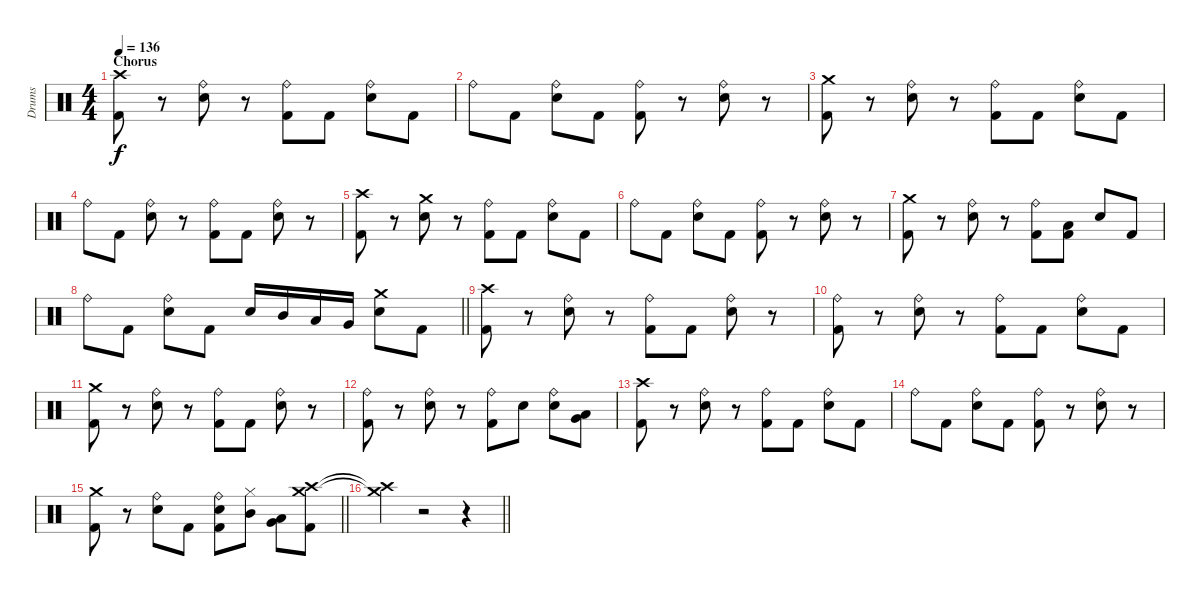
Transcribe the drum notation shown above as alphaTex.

\track ("Drums" "Drums") {instrument percussion}
\staff {score}
\articulation defaults
\ts (4 4)
\section ("" "Chorus")
\tempo 136
\clef neutral
\ks c
("Crash high (hit)" "Kick (hit) 2").8{dy f} r.8 ("Ride (bell)" "Electric Snare (hit)").8 r.8 ("Ride (bell)" "Kick (hit) 2").8 "Kick (hit) 2".8 ("Ride (bell)" "Electric Snare (hit)").8 "Kick (hit) 2".8 |
"Ride (bell)".8 "Kick (hit) 2".8 ("Ride (bell)" "Electric Snare (hit)").8 "Kick (hit) 2".8 ("Ride (bell)" "Kick (hit) 2").8 r.8 ("Ride (bell)" "Electric Snare (hit)").8 r.8 |
("Crash medium (hit)" "Kick (hit) 2").8 r.8 ("Ride (bell)" "Electric Snare (hit)").8 r.8 ("Ride (bell)" "Kick (hit) 2").8 "Kick (hit) 2".8 ("Ride (bell)" "Electric Snare (hit)").8 "Kick (hit) 2".8 |
"Ride (bell)".8 "Kick (hit) 2".8 ("Ride (bell)" "Electric Snare (hit)").8 r.8 ("Ride (bell)" "Kick (hit) 2").8 "Kick (hit) 2".8 ("Ride (bell)" "Electric Snare (hit)").8 r.8 |
("Crash high (hit)" "Kick (hit) 2").8 r.8 ("Crash medium (hit)" "Electric Snare (hit)").8 r.8 ("Ride (bell)" "Kick (hit) 2").8 "Kick (hit) 2".8 ("Ride (bell)" "Electric Snare (hit)").8 "Kick (hit) 2".8 |
"Ride (bell)".8 "Kick (hit) 2".8 ("Ride (bell)" "Electric Snare (hit)").8 "Kick (hit) 2".8 ("Ride (bell)" "Kick (hit) 2").8 r.8 ("Ride (bell)" "Electric Snare (hit)").8 r.8 |
("Crash medium (hit)" "Kick (hit) 2").8 r.8 ("Ride (bell)" "Electric Snare (hit)").8 r.8 ("Ride (bell)" "Kick (hit) 2").8 ("Low Tom (hit)" "Kick (hit) 2").8 "Electric Snare (hit)".8 "Kick (hit) 2".8 |
\barLineRight lightlight "Ride (bell)".8 "Kick (hit) 2".8
("Ride (bell)" "Electric Snare (hit)").8 "Kick (hit) 2".8 "Electric Snare (hit)".16 "Mid Tom (hit)".16 "Low Tom (hit)".16 "Very Low Tom (hit)".16 ("Crash medium (hit)" "Electric Snare (hit)").8 "Kick (hit) 2".8 |
("Crash high (hit)" "Kick (hit) 2").8 r.8 ("Ride (bell)" "Electric Snare (hit)").8 r.8 ("Ride (bell)" "Kick (hit) 2").8 "Kick (hit) 2".8 ("Ride (bell)" "Electric Snare (hit)").8 r.8 |
("Ride (bell)" "Kick (hit) 2").8 r.8 ("Ride (bell)" "Electric Snare (hit)").8 r.8 ("Ride (bell)" "Kick (hit) 2").8 "Kick (hit) 2".8 ("Ride (bell)" "Electric Snare (hit)").8 "Kick (hit) 2".8 |
("Crash medium (hit)" "Kick (hit) 2").8 r.8 ("Ride (bell)" "Electric Snare (hit)").8 r.8 ("Ride (bell)" "Kick (hit) 2").8 "Kick (hit) 2".8 ("Ride (bell)" "Electric Snare (hit)").8 r.8 |
("Ride (bell)" "Kick (hit) 2").8 r.8 ("Ride (bell)" "Electric Snare (hit)").8 r.8 ("Ride (bell)" "Kick (hit) 2").8 "Electric Snare (hit)".8 ("Ride (bell)" "Electric Snare (hit)").8 ("Very Low Tom (hit)" "Low Floor Tom (hit)").8 |
("Crash high (hit)" "Kick (hit) 2").8 r.8 ("Ride (bell)" "Electric Snare (hit)").8 r.8 ("Ride (bell)" "Kick (hit) 2").8 "Kick (hit) 2".8 ("Ride (bell)" "Electric Snare (hit)").8 "Kick (hit) 2".8 |
"Ride (bell)".8 "Kick (hit) 2".8 ("Ride (bell)" "Electric Snare (hit)").8 "Kick (hit) 2".8 ("Ride (bell)" "Kick (hit) 2").8 r.8 ("Ride (bell)" "Electric Snare (hit)").8 r.8 |
\barLineRight lightlight
("Crash medium (hit)" "Kick (hit) 2").8 r.8 ("Ride (bell)" "Electric Snare (hit)").8 "Kick (hit) 2".8 ("Ride (bell)" "Electric Snare (hit)" "Kick (hit) 2").8 ("Mid Tom (hit)" "Hi-Hat (closed)").8 ("Low Tom (hit)" "Very Low Tom (hit)").8 ("Crash high (hit)" "Crash medium (hit)" "Kick (hit) 2").8 |
\barLineRight lightlight
("Crash high (hit)"{t} "Crash medium (hit)"{t}).4 r.2 r.4
